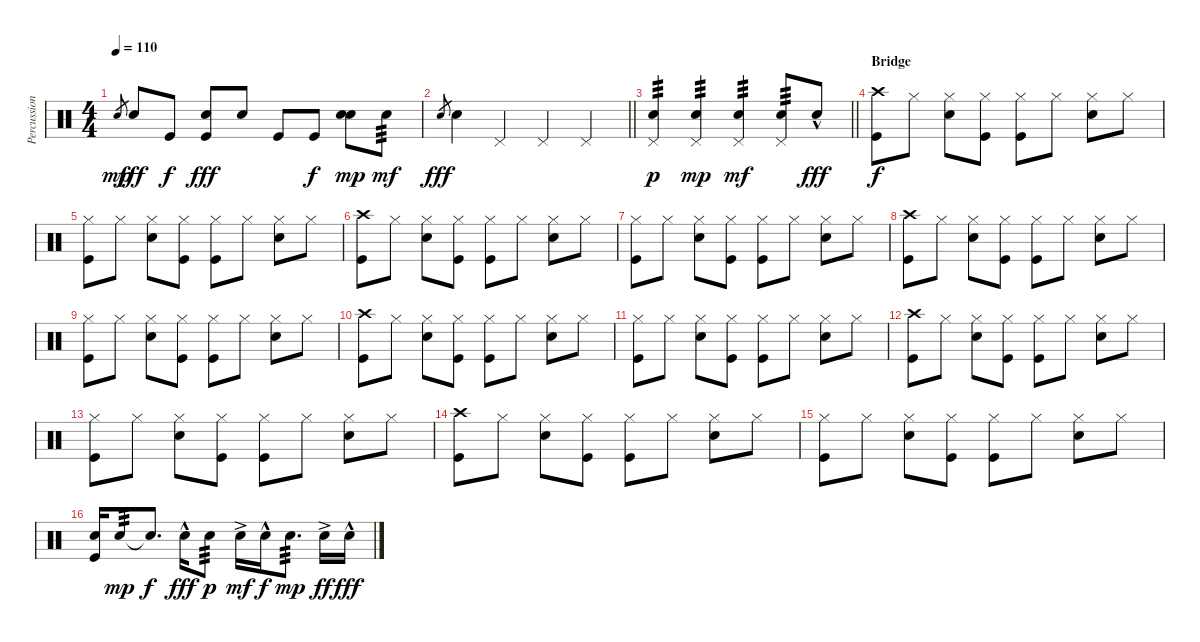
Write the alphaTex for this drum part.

\track ("Percussion" "Percussion") {instrument percussion}
\staff {score}
\articulation defaults
\ts (4 4)
\tempo 110
\clef neutral
\ks c "Snare (hit) 2".8{gr dy mp} "Snare (hit) 2".8{dy fff} "Kick (hit)".8{dy f}
("Hand Clap (hit)" "Kick (hit)").8{dy fff} "Snare (hit) 2".8 "Kick (hit)".8 "Kick (hit)".8{dy f} ("Hand Clap (hit)" "Snare (hit) 2").8{dy mp} "Snare (hit) 2".8{tp 3 dy mf} |
\barLineRight lightlight "Snare (hit) 2".8{gr dy fff} "Snare (hit) 2".4 "Pedal Hi-Hat (hit)".4 "Pedal Hi-Hat (hit)".4 "Pedal Hi-Hat (hit)".4
|
\barLineRight lightlight
("Pedal Hi-Hat (hit)" "Snare (hit) 2").4{tp 3 dy p} ("Pedal Hi-Hat (hit)" "Snare (hit) 2").4{tp 3 dy mp} ("Pedal Hi-Hat (hit)" "Snare (hit) 2").4{tp 3 dy mf} ("Pedal Hi-Hat (hit)" "Snare (hit) 2").8{tp 3} "Snare (hit) 2"{hac}.8{dy fff} |
\section ("" "Bridge")
("Crash high (hit)" "Kick (hit)").8{dy f} "Hi-Hat (closed)".8 ("Hi-Hat (closed)" "Snare (hit) 2").8 ("Hi-Hat (closed)" "Kick (hit)").8 ("Hi-Hat (closed)" "Kick (hit)").8 "Hi-Hat (closed)".8 ("Hi-Hat (closed)" "Snare (hit) 2").8 "Hi-Hat (closed)".8 |
("Hi-Hat (closed)" "Kick (hit)").8 "Hi-Hat (closed)".8 ("Hi-Hat (closed)" "Snare (hit) 2").8 ("Hi-Hat (closed)" "Kick (hit)").8 ("Hi-Hat (closed)" "Kick (hit)").8 "Hi-Hat (closed)".8 ("Hi-Hat (closed)" "Snare (hit) 2").8 "Hi-Hat (closed)".8 |
("Crash high (hit)" "Kick (hit)").8 "Hi-Hat (closed)".8 ("Hi-Hat (closed)" "Snare (hit) 2").8 ("Hi-Hat (closed)" "Kick (hit)").8 ("Hi-Hat (closed)" "Kick (hit)").8 "Hi-Hat (closed)".8 ("Hi-Hat (closed)" "Snare (hit) 2").8 "Hi-Hat (closed)".8 |
("Hi-Hat (closed)" "Kick (hit)").8 "Hi-Hat (closed)".8 ("Hi-Hat (closed)" "Snare (hit) 2").8 ("Hi-Hat (closed)" "Kick (hit)").8 ("Hi-Hat (closed)" "Kick (hit)").8 "Hi-Hat (closed)".8 ("Hi-Hat (closed)" "Snare (hit) 2").8 "Hi-Hat (closed)".8 |
("Crash high (hit)" "Kick (hit)").8 "Hi-Hat (closed)".8 ("Hi-Hat (closed)" "Snare (hit) 2").8 ("Hi-Hat (closed)" "Kick (hit)").8 ("Hi-Hat (closed)" "Kick (hit)").8 "Hi-Hat (closed)".8 ("Hi-Hat (closed)" "Snare (hit) 2").8 "Hi-Hat (closed)".8 |
("Hi-Hat (closed)" "Kick (hit)").8 "Hi-Hat (closed)".8 ("Hi-Hat (closed)" "Snare (hit) 2").8 ("Hi-Hat (closed)" "Kick (hit)").8 ("Hi-Hat (closed)" "Kick (hit)").8 "Hi-Hat (closed)".8 ("Hi-Hat (closed)" "Snare (hit) 2").8 "Hi-Hat (closed)".8 |
("Crash high (hit)" "Kick (hit)").8 "Hi-Hat (closed)".8 ("Hi-Hat (closed)" "Snare (hit) 2").8 ("Hi-Hat (closed)" "Kick (hit)").8 ("Hi-Hat (closed)" "Kick (hit)").8 "Hi-Hat (closed)".8 ("Hi-Hat (closed)" "Snare (hit) 2").8 "Hi-Hat (closed)".8 |
("Hi-Hat (closed)" "Kick (hit)").8 "Hi-Hat (closed)".8 ("Hi-Hat (closed)" "Snare (hit) 2").8 ("Hi-Hat (closed)" "Kick (hit)").8 ("Hi-Hat (closed)" "Kick (hit)").8 "Hi-Hat (closed)".8 ("Hi-Hat (closed)" "Snare (hit) 2").8 "Hi-Hat (closed)".8 |
("Crash high (hit)" "Kick (hit)").8 "Hi-Hat (closed)".8 ("Hi-Hat (closed)" "Snare (hit) 2").8 ("Hi-Hat (closed)" "Kick (hit)").8 ("Hi-Hat (closed)" "Kick (hit)").8 "Hi-Hat (closed)".8 ("Hi-Hat (closed)" "Snare (hit) 2").8 "Hi-Hat (closed)".8 |
("Hi-Hat (closed)" "Kick (hit)").8 "Hi-Hat (closed)".8 ("Hi-Hat (closed)" "Snare (hit) 2").8 ("Hi-Hat (closed)" "Kick (hit)").8 ("Hi-Hat (closed)" "Kick (hit)").8 "Hi-Hat (closed)".8 ("Hi-Hat (closed)" "Snare (hit) 2").8 "Hi-Hat (closed)".8 |
("Crash high (hit)" "Kick (hit)").8 "Hi-Hat (closed)".8 ("Hi-Hat (closed)" "Snare (hit) 2").8 ("Hi-Hat (closed)" "Kick (hit)").8 ("Hi-Hat (closed)" "Kick (hit)").8 "Hi-Hat (closed)".8 ("Hi-Hat (closed)" "Snare (hit) 2").8 "Hi-Hat (closed)".8 |
("Hi-Hat (closed)" "Kick (hit)").8 "Hi-Hat (closed)".8 ("Hi-Hat (closed)" "Snare (hit) 2").8 ("Hi-Hat (closed)" "Kick (hit)").8 ("Hi-Hat (closed)" "Kick (hit)").8 "Hi-Hat (closed)".8 ("Hi-Hat (closed)" "Snare (hit) 2").8 "Hi-Hat (closed)".8 |
("Snare (hit) 2" "Kick (hit)").16 "Snare (hit) 2".8{tp 3 dy mp} "Snare (hit) 2"{t}.8{d dy f} "Snare (hit) 2"{hac}.16{dy fff} "Snare (hit) 2".8{tp 3 dy p} "Snare (hit) 2"{ac}.16{dy mf} "Snare (hit) 2"{hac}.16{dy f} "Snare (hit) 2".8{d tp 3 dy mp} "Snare (hit) 2"{ac}.16{dy ff} "Snare (hit) 2"{hac}.16{dy fff}
